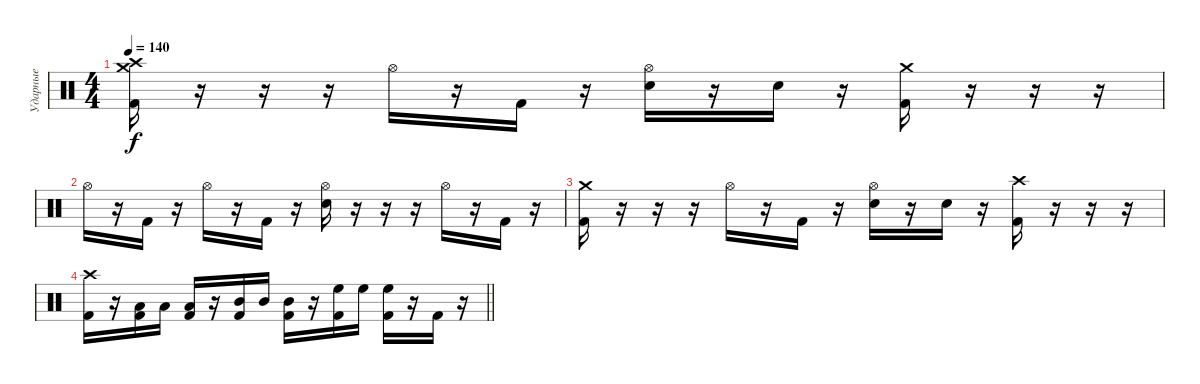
\track ("Ударные" "Ударные") {instrument percussion}
\staff {score}
\articulation defaults
\ts (4 4)
\tempo 140
\clef neutral
\ks c
("Crash high (hit)" "Crash medium (hit)" "Kick (hit) 2").16{dy f} r.16 r.16 r.16 "Hi-Hat (open)".16 r.16 "Kick (hit) 2".16 r.16 ("Hi-Hat (open)" "Snare (hit) 2").16 r.16 "Snare (hit) 2".16 r.16 ("Crash medium (hit)" "Kick (hit) 2").16 r.16 r.16 r.16 |
"Hi-Hat (open)".16 r.16 "Kick (hit) 2".16 r.16 "Hi-Hat (open)".16 r.16 "Kick (hit) 2".16 r.16 ("Hi-Hat (open)" "Snare (hit) 2").16 r.16 r.16 r.16 "Hi-Hat (open)".16 r.16 "Kick (hit) 2".16 r.16 |
("Crash medium (hit)" "Kick (hit) 2").16 r.16 r.16 r.16 "Hi-Hat (open)".16 r.16 "Kick (hit) 2".16 r.16 ("Hi-Hat (open)" "Snare (hit) 2").16 r.16 "Snare (hit) 2".16 r.16 ("Crash high (hit)" "Kick (hit) 2").16 r.16 r.16 r.16 |
\barLineRight lightlight
("Crash high (hit)" "Kick (hit) 2").16 r.16 ("Low Tom (hit)" "Kick (hit) 2").16 "Low Tom (hit)".16 ("Low Tom (hit)" "Kick (hit) 2").16 r.16 ("Mid Tom (hit)" "Kick (hit) 2").16 "Mid Tom (hit)".16 ("Mid Tom (hit)" "Kick (hit) 2").16 r.16 ("High Floor Tom (hit)" "Kick (hit) 2").16 "High Floor Tom (hit)".16 ("High Floor Tom (hit)" "Kick (hit) 2").16 r.16 "Kick (hit) 2".16 r.16
